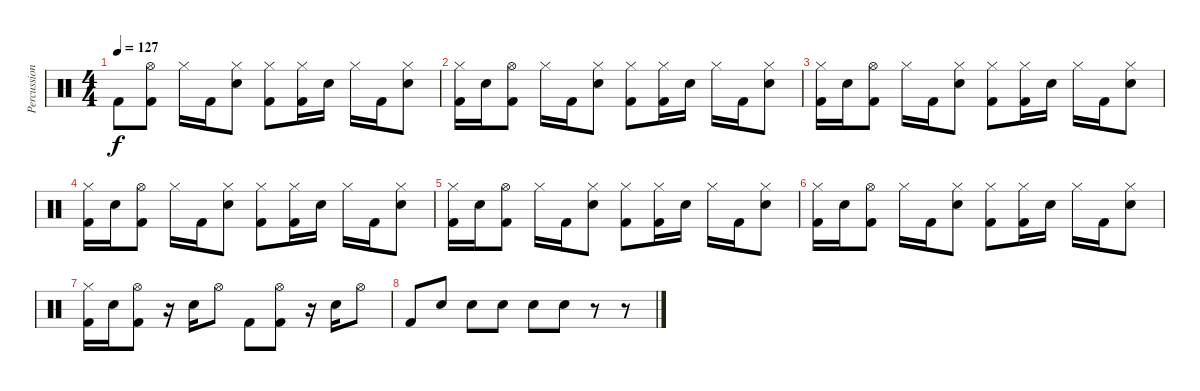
\track ("Percussion" "Percussion") {instrument percussion}
\staff {score}
\articulation defaults
\ts (4 4)
\tempo 127
\clef neutral
\ks c "Kick (hit) 2".8{dy f}
("Hi-Hat (open)" "Kick (hit) 2").8 "Hi-Hat (closed)".16 "Kick (hit) 2".16 ("Hi-Hat (closed)" "Electric Snare (hit)").8 ("Hi-Hat (closed)" "Kick (hit) 2").8 ("Hi-Hat (closed)" "Kick (hit) 2").16 "Electric Snare (hit)".16 "Hi-Hat (closed)".16 "Kick (hit) 2".16 ("Hi-Hat (closed)" "Electric Snare (hit)").8 |
("Hi-Hat (closed)" "Kick (hit) 2").16 "Electric Snare (hit)".16 ("Hi-Hat (open)" "Kick (hit) 2").8 "Hi-Hat (closed)".16 "Kick (hit) 2".16 ("Hi-Hat (closed)" "Electric Snare (hit)").8 ("Hi-Hat (closed)" "Kick (hit) 2").8 ("Hi-Hat (closed)" "Kick (hit) 2").16 "Electric Snare (hit)".16 "Hi-Hat (closed)".16 "Kick (hit) 2".16 ("Hi-Hat (closed)" "Electric Snare (hit)").8 |
("Hi-Hat (closed)" "Kick (hit) 2").16 "Electric Snare (hit)".16 ("Hi-Hat (open)" "Kick (hit) 2").8 "Hi-Hat (closed)".16 "Kick (hit) 2".16 ("Hi-Hat (closed)" "Electric Snare (hit)").8 ("Hi-Hat (closed)" "Kick (hit) 2").8 ("Hi-Hat (closed)" "Kick (hit) 2").16 "Electric Snare (hit)".16 "Hi-Hat (closed)".16 "Kick (hit) 2".16 ("Hi-Hat (closed)" "Electric Snare (hit)").8 |
("Hi-Hat (closed)" "Kick (hit) 2").16 "Electric Snare (hit)".16 ("Hi-Hat (open)" "Kick (hit) 2").8 "Hi-Hat (closed)".16 "Kick (hit) 2".16 ("Hi-Hat (closed)" "Electric Snare (hit)").8 ("Hi-Hat (closed)" "Kick (hit) 2").8 ("Hi-Hat (closed)" "Kick (hit) 2").16 "Electric Snare (hit)".16 "Hi-Hat (closed)".16 "Kick (hit) 2".16 ("Hi-Hat (closed)" "Electric Snare (hit)").8 |
("Hi-Hat (closed)" "Kick (hit) 2").16 "Electric Snare (hit)".16 ("Hi-Hat (open)" "Kick (hit) 2").8 "Hi-Hat (closed)".16 "Kick (hit) 2".16 ("Hi-Hat (closed)" "Electric Snare (hit)").8 ("Hi-Hat (closed)" "Kick (hit) 2").8 ("Hi-Hat (closed)" "Kick (hit) 2").16 "Electric Snare (hit)".16 "Hi-Hat (closed)".16 "Kick (hit) 2".16 ("Hi-Hat (closed)" "Electric Snare (hit)").8 |
("Hi-Hat (closed)" "Kick (hit) 2").16 "Electric Snare (hit)".16 ("Hi-Hat (open)" "Kick (hit) 2").8 "Hi-Hat (closed)".16 "Kick (hit) 2".16 ("Hi-Hat (closed)" "Electric Snare (hit)").8 ("Hi-Hat (closed)" "Kick (hit) 2").8 ("Hi-Hat (closed)" "Kick (hit) 2").16 "Electric Snare (hit)".16 "Hi-Hat (closed)".16 "Kick (hit) 2".16 ("Hi-Hat (closed)" "Electric Snare (hit)").8 |
("Hi-Hat (closed)" "Kick (hit) 2").16 "Electric Snare (hit)".16 ("Hi-Hat (open)" "Kick (hit) 2").8 r.16 "Electric Snare (hit)".16 "Hi-Hat (open)".8 "Kick (hit) 2".8 ("Hi-Hat (open)" "Kick (hit) 2").8 r.16 "Electric Snare (hit)".16 "Hi-Hat (open)".8 |
"Kick (hit) 2".8 "Electric Snare (hit)".8 "Electric Snare (hit)".8 "Electric Snare (hit)".8 "Electric Snare (hit)".8 "Electric Snare (hit)".8 r.8 r.8
